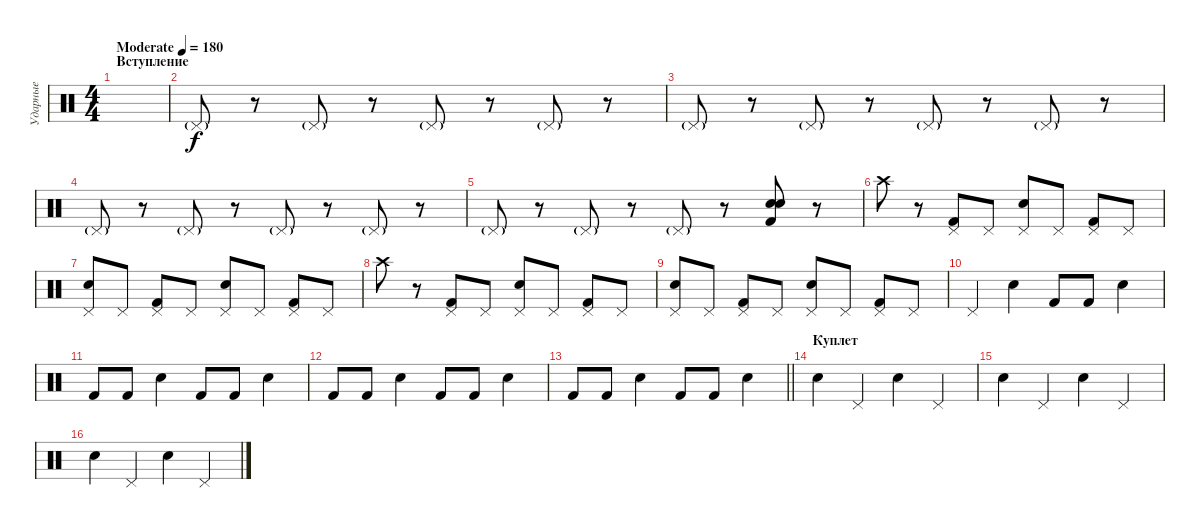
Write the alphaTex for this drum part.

\track ("Ударные" "Ударные") {instrument percussion}
\staff {score}
\articulation defaults
\ts (4 4)
\section ("" "Вступление")
\tempo (180 "Moderate")
\clef neutral
\ks c
|
"Pedal Hi-Hat (hit)"{g}.8 r.8 "Pedal Hi-Hat (hit)"{g}.8 r.8 "Pedal Hi-Hat (hit)"{g}.8 r.8 "Pedal Hi-Hat (hit)"{g}.8 r.8 |
"Pedal Hi-Hat (hit)"{g}.8 r.8 "Pedal Hi-Hat (hit)"{g}.8 r.8 "Pedal Hi-Hat (hit)"{g}.8 r.8 "Pedal Hi-Hat (hit)"{g}.8 r.8 |
"Pedal Hi-Hat (hit)"{g}.8 r.8 "Pedal Hi-Hat (hit)"{g}.8 r.8 "Pedal Hi-Hat (hit)"{g}.8 r.8 "Pedal Hi-Hat (hit)"{g}.8 r.8 |
"Pedal Hi-Hat (hit)"{g}.8 r.8 "Pedal Hi-Hat (hit)"{g}.8 r.8 "Pedal Hi-Hat (hit)"{g}.8 r.8 ("Kick (hit) 2" "Electric Snare (hit)" "Snare (hit) 2").8{dy f} r.8 |
"Crash high (hit)".8 r.8 ("Kick (hit) 2" "Pedal Hi-Hat (hit)").8 "Pedal Hi-Hat (hit)".8 ("Snare (hit) 2" "Pedal Hi-Hat (hit)").8 "Pedal Hi-Hat (hit)".8 ("Kick (hit) 2" "Pedal Hi-Hat (hit)").8 "Pedal Hi-Hat (hit)".8 |
("Snare (hit) 2" "Pedal Hi-Hat (hit)").8 "Pedal Hi-Hat (hit)".8 ("Kick (hit) 2" "Pedal Hi-Hat (hit)").8 "Pedal Hi-Hat (hit)".8 ("Snare (hit) 2" "Pedal Hi-Hat (hit)").8 "Pedal Hi-Hat (hit)".8 ("Kick (hit) 2" "Pedal Hi-Hat (hit)").8 "Pedal Hi-Hat (hit)".8 |
"Crash high (hit)".8 r.8 ("Kick (hit) 2" "Pedal Hi-Hat (hit)").8 "Pedal Hi-Hat (hit)".8 ("Snare (hit) 2" "Pedal Hi-Hat (hit)").8 "Pedal Hi-Hat (hit)".8 ("Kick (hit) 2" "Pedal Hi-Hat (hit)").8 "Pedal Hi-Hat (hit)".8 |
("Snare (hit) 2" "Pedal Hi-Hat (hit)").8 "Pedal Hi-Hat (hit)".8 ("Kick (hit) 2" "Pedal Hi-Hat (hit)").8 "Pedal Hi-Hat (hit)".8 ("Snare (hit) 2" "Pedal Hi-Hat (hit)").8 "Pedal Hi-Hat (hit)".8 ("Kick (hit) 2" "Pedal Hi-Hat (hit)").8 "Pedal Hi-Hat (hit)".8 |
"Pedal Hi-Hat (hit)".4 "Electric Snare (hit)".4 "Kick (hit) 2".8 "Kick (hit) 2".8 "Electric Snare (hit)".4 |
"Kick (hit) 2".8 "Kick (hit) 2".8 "Electric Snare (hit)".4 "Kick (hit) 2".8 "Kick (hit) 2".8 "Electric Snare (hit)".4 |
"Kick (hit) 2".8 "Kick (hit) 2".8 "Electric Snare (hit)".4 "Kick (hit) 2".8 "Kick (hit) 2".8 "Electric Snare (hit)".4 |
\barLineRight lightlight "Kick (hit) 2".8 "Kick (hit) 2".8 "Electric Snare (hit)".4 "Kick (hit) 2".8 "Kick (hit) 2".8 "Electric Snare (hit)".4
|
\section ("" "Куплет")
"Snare (hit) 2".4 "Pedal Hi-Hat (hit)".4 "Snare (hit) 2".4 "Pedal Hi-Hat (hit)".4 |
"Snare (hit) 2".4 "Pedal Hi-Hat (hit)".4 "Snare (hit) 2".4 "Pedal Hi-Hat (hit)".4 |
"Snare (hit) 2".4 "Pedal Hi-Hat (hit)".4 "Snare (hit) 2".4 "Pedal Hi-Hat (hit)".4
